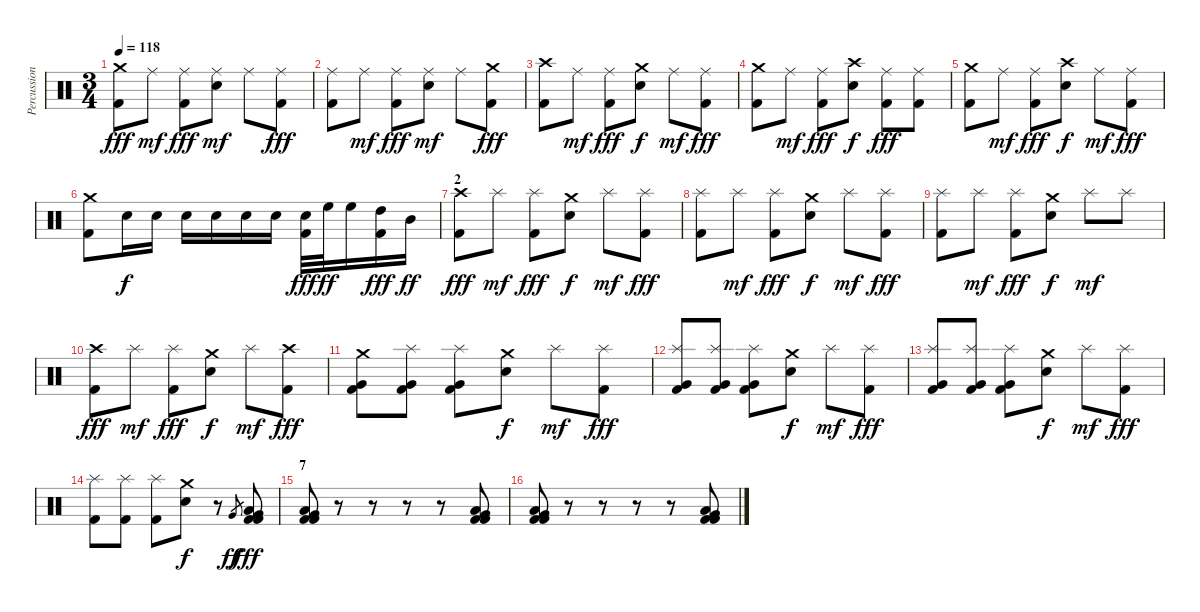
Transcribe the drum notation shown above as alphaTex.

\track ("Percussion" "Percussion") {instrument percussion}
\staff {score}
\articulation defaults
\ts (3 4)
\tempo 118
\clef neutral
\ks c
("Crash medium (hit)" "Kick (hit) 2").8{dy fff} "Ride (middle)".8{dy mf} ("Ride (middle)" "Kick (hit) 2").8{dy fff} ("Ride (middle)" "Electric Snare (hit)").8{dy mf} "Ride (middle)".8 ("Ride (middle)" "Kick (hit) 2").8{dy fff} |
("Ride (middle)" "Kick (hit) 2").8 "Ride (middle)".8{dy mf} ("Ride (middle)" "Kick (hit) 2").8{dy fff} ("Ride (middle)" "Electric Snare (hit)").8{dy mf} "Ride (middle)".8 ("Crash medium (hit)" "Kick (hit) 2").8{dy fff} |
("Crash high (hit)" "Kick (hit) 2").8 "Ride (middle)".8{dy mf} ("Ride (middle)" "Kick (hit) 2").8{dy fff} ("Crash medium (hit)" "Electric Snare (hit)").8{dy f} "Ride (middle)".8{dy mf} ("Ride (middle)" "Kick (hit) 2").8{dy fff} |
("Crash medium (hit)" "Kick (hit) 2").8 "Ride (middle)".8{dy mf} ("Ride (middle)" "Kick (hit) 2").8{dy fff} ("Crash high (hit)" "Electric Snare (hit)").8{dy f} ("Ride (middle)" "Kick (hit) 2").8{dy fff} ("Ride (middle)" "Kick (hit) 2").8 |
("Crash medium (hit)" "Kick (hit) 2").8 "Ride (middle)".8{dy mf} ("Ride (middle)" "Kick (hit) 2").8{dy fff} ("Crash high (hit)" "Electric Snare (hit)").8{dy f} "Ride (middle)".8{dy mf} ("Ride (middle)" "Kick (hit) 2").8{dy fff} |
("Crash medium (hit)" "Kick (hit) 2").8 "Electric Snare (hit)".16{dy f} "Electric Snare (hit)".16 "Electric Snare (hit)".16 "Electric Snare (hit)".16 "Electric Snare (hit)".16 "Electric Snare (hit)".16 ("Electric Snare (hit)" "Kick (hit) 2").32{dy fff} "High Floor Tom (hit)".32{dy ff} "High Floor Tom (hit)".16 ("High Tom (hit)" "Kick (hit) 2").16{dy fff} "Mid Tom (hit)".16{dy ff} |
\section ("" "2")
("Crash high (hit)" "Kick (hit) 2").8{dy fff} "Splash (hit)".8{dy mf} ("Splash (hit)" "Kick (hit) 2").8{dy fff} ("Crash medium (hit)" "Electric Snare (hit)").8{dy f} "Splash (hit)".8{dy mf} ("Splash (hit)" "Kick (hit) 2").8{dy fff} |
("Splash (hit)" "Kick (hit) 2").8 "Splash (hit)".8{dy mf} ("Splash (hit)" "Kick (hit) 2").8{dy fff} ("Crash medium (hit)" "Electric Snare (hit)").8{dy f} "Splash (hit)".8{dy mf} ("Splash (hit)" "Kick (hit) 2").8{dy fff} |
("Splash (hit)" "Kick (hit) 2").8 "Splash (hit)".8{dy mf} ("Splash (hit)" "Kick (hit) 2").8{dy fff} ("Crash medium (hit)" "Electric Snare (hit)").8{dy f} "Splash (hit)".8{dy mf} "Splash (hit)".8 |
("Crash high (hit)" "Kick (hit) 2").8{dy fff} "Splash (hit)".8{dy mf} ("Splash (hit)" "Kick (hit) 2").8{dy fff} ("Crash medium (hit)" "Electric Snare (hit)").8{dy f} "Splash (hit)".8{dy mf} ("Crash high (hit)" "Kick (hit) 2").8{dy fff} |
("Crash medium (hit)" "Very Low Tom (hit)" "Kick (hit) 2").8 ("Splash (hit)" "Very Low Tom (hit)" "Kick (hit) 2").8 ("Splash (hit)" "Very Low Tom (hit)" "Kick (hit) 2").8 ("Crash medium (hit)" "Electric Snare (hit)").8{dy f} "Splash (hit)".8{dy mf} ("Splash (hit)" "Kick (hit) 2").8{dy fff} |
("Splash (hit)" "Very Low Tom (hit)" "Kick (hit) 2").8 ("Splash (hit)" "Very Low Tom (hit)" "Kick (hit) 2").8 ("Splash (hit)" "Very Low Tom (hit)" "Kick (hit) 2").8 ("Crash medium (hit)" "Electric Snare (hit)").8{dy f} "Splash (hit)".8{dy mf} ("Splash (hit)" "Kick (hit) 2").8{dy fff} |
("Splash (hit)" "Very Low Tom (hit)" "Kick (hit) 2").8 ("Splash (hit)" "Very Low Tom (hit)" "Kick (hit) 2").8 ("Splash (hit)" "Very Low Tom (hit)" "Kick (hit) 2").8 ("Crash medium (hit)" "Electric Snare (hit)").8{dy f} "Splash (hit)".8{dy mf} ("Splash (hit)" "Kick (hit) 2").8{dy fff} |
("Splash (hit)" "Kick (hit) 2").8 ("Splash (hit)" "Kick (hit) 2").8 ("Splash (hit)" "Kick (hit) 2").8 ("Crash medium (hit)" "Electric Snare (hit)").8{dy f} r.8 "Very Low Tom (hit)".8{gr dy ff} ("Kick (hit) 2" "Very Low Tom (hit)" "Low Tom (hit)" "Kick (hit) 2").8{dy fff} |
\section ("" "7")
("Kick (hit) 2" "Very Low Tom (hit)" "Low Tom (hit)" "Kick (hit) 2").8 r.8 r.8 r.8 r.8 ("Kick (hit) 2" "Very Low Tom (hit)" "Low Tom (hit)" "Kick (hit) 2").8 |
("Kick (hit) 2" "Very Low Tom (hit)" "Low Tom (hit)" "Kick (hit) 2").8 r.8 r.8 r.8 r.8 ("Kick (hit) 2" "Very Low Tom (hit)" "Low Tom (hit)" "Kick (hit) 2").8
